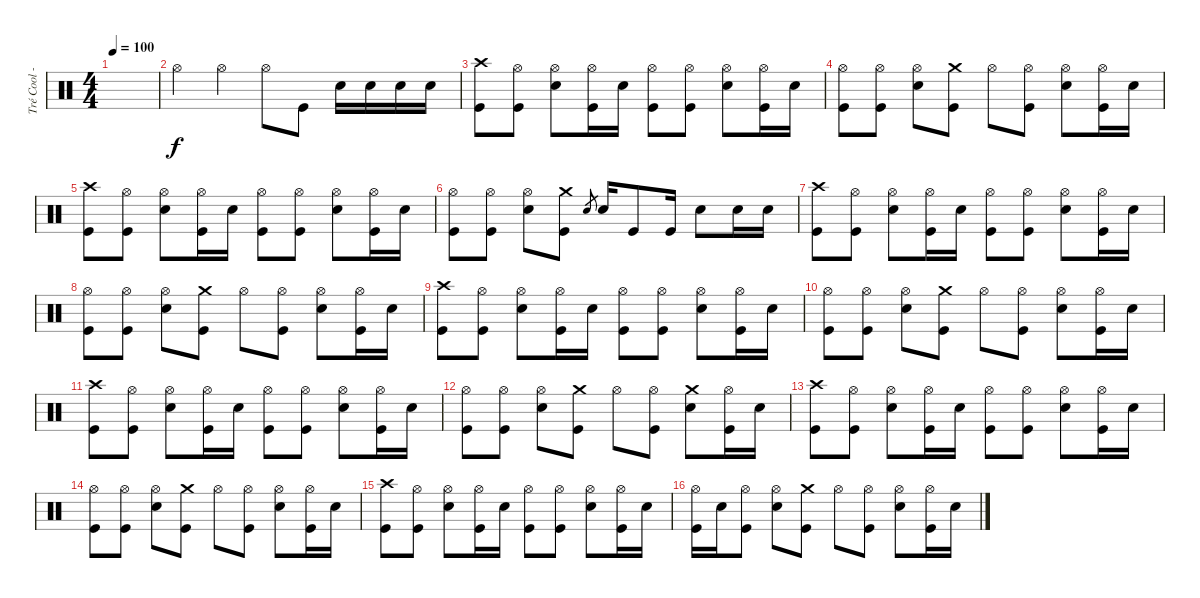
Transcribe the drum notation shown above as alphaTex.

\track ("Tré Cool - Drums" "Tré Cool -") {instrument percussion}
\staff {score}
\articulation defaults
\ts (4 4)
\tempo 100
\clef neutral
\ks c
|
"Hi-Hat (open)".4 "Hi-Hat (open)".4 "Hi-Hat (open)".8 "Kick (hit)".8 "Electric Snare (hit)".16 "Electric Snare (hit)".16 "Electric Snare (hit)".16 "Electric Snare (hit)".16 |
("Crash high (hit)" "Kick (hit)").8 ("Hi-Hat (open)" "Kick (hit)").8 ("Hi-Hat (open)" "Electric Snare (hit)").8 ("Hi-Hat (open)" "Kick (hit)").16 "Electric Snare (hit)".16 ("Hi-Hat (open)" "Kick (hit)").8 ("Hi-Hat (open)" "Kick (hit)").8 ("Hi-Hat (open)" "Electric Snare (hit)").8 ("Hi-Hat (open)" "Kick (hit)").16 "Electric Snare (hit)".16 |
("Hi-Hat (open)" "Kick (hit)").8 ("Hi-Hat (open)" "Kick (hit)").8 ("Hi-Hat (open)" "Electric Snare (hit)").8 ("Crash medium (hit)" "Kick (hit)").8 "Hi-Hat (open)".8 ("Hi-Hat (open)" "Kick (hit)").8 ("Hi-Hat (open)" "Electric Snare (hit)").8 ("Hi-Hat (open)" "Kick (hit)").16 "Electric Snare (hit)".16 |
("Crash high (hit)" "Kick (hit)").8 ("Hi-Hat (open)" "Kick (hit)").8 ("Hi-Hat (open)" "Electric Snare (hit)").8 ("Hi-Hat (open)" "Kick (hit)").16 "Electric Snare (hit)".16 ("Hi-Hat (open)" "Kick (hit)").8 ("Hi-Hat (open)" "Kick (hit)").8 ("Hi-Hat (open)" "Electric Snare (hit)").8 ("Hi-Hat (open)" "Kick (hit)").16 "Electric Snare (hit)".16 |
("Hi-Hat (open)" "Kick (hit)").8 ("Hi-Hat (open)" "Kick (hit)").8 ("Hi-Hat (open)" "Electric Snare (hit)").8 ("Crash medium (hit)" "Kick (hit)").8 "Electric Snare (hit)".8{gr} "Electric Snare (hit)".16 "Kick (hit)".8 "Kick (hit)".16 "Electric Snare (hit)".8 "Electric Snare (hit)".16 "Electric Snare (hit)".16 |
("Crash high (hit)" "Kick (hit)").8 ("Hi-Hat (open)" "Kick (hit)").8 ("Hi-Hat (open)" "Electric Snare (hit)").8 ("Hi-Hat (open)" "Kick (hit)").16 "Electric Snare (hit)".16 ("Hi-Hat (open)" "Kick (hit)").8 ("Hi-Hat (open)" "Kick (hit)").8 ("Hi-Hat (open)" "Electric Snare (hit)").8 ("Hi-Hat (open)" "Kick (hit)").16 "Electric Snare (hit)".16 |
("Hi-Hat (open)" "Kick (hit)").8 ("Hi-Hat (open)" "Kick (hit)").8 ("Hi-Hat (open)" "Electric Snare (hit)").8 ("Crash medium (hit)" "Kick (hit)").8 "Hi-Hat (open)".8 ("Hi-Hat (open)" "Kick (hit)").8 ("Hi-Hat (open)" "Electric Snare (hit)").8 ("Hi-Hat (open)" "Kick (hit)").16 "Electric Snare (hit)".16 |
("Crash high (hit)" "Kick (hit)").8 ("Hi-Hat (open)" "Kick (hit)").8 ("Hi-Hat (open)" "Electric Snare (hit)").8 ("Hi-Hat (open)" "Kick (hit)").16 "Electric Snare (hit)".16 ("Hi-Hat (open)" "Kick (hit)").8 ("Hi-Hat (open)" "Kick (hit)").8 ("Hi-Hat (open)" "Electric Snare (hit)").8 ("Hi-Hat (open)" "Kick (hit)").16 "Electric Snare (hit)".16 |
("Hi-Hat (open)" "Kick (hit)").8 ("Hi-Hat (open)" "Kick (hit)").8 ("Hi-Hat (open)" "Electric Snare (hit)").8 ("Crash medium (hit)" "Kick (hit)").8 "Hi-Hat (open)".8 ("Hi-Hat (open)" "Kick (hit)").8 ("Hi-Hat (open)" "Electric Snare (hit)").8 ("Hi-Hat (open)" "Kick (hit)").16 "Electric Snare (hit)".16 |
("Crash high (hit)" "Kick (hit)").8 ("Hi-Hat (open)" "Kick (hit)").8 ("Hi-Hat (open)" "Electric Snare (hit)").8 ("Hi-Hat (open)" "Kick (hit)").16 "Electric Snare (hit)".16 ("Hi-Hat (open)" "Kick (hit)").8 ("Hi-Hat (open)" "Kick (hit)").8 ("Hi-Hat (open)" "Electric Snare (hit)").8 ("Hi-Hat (open)" "Kick (hit)").16 "Electric Snare (hit)".16 |
("Hi-Hat (open)" "Kick (hit)").8 ("Hi-Hat (open)" "Kick (hit)").8 ("Hi-Hat (open)" "Electric Snare (hit)").8 ("Crash medium (hit)" "Kick (hit)").8 "Hi-Hat (open)".8 ("Hi-Hat (open)" "Kick (hit)").8 ("Crash medium (hit)" "Electric Snare (hit)").8 ("Hi-Hat (open)" "Kick (hit)").16 "Electric Snare (hit)".16 |
("Crash high (hit)" "Kick (hit)").8 ("Hi-Hat (open)" "Kick (hit)").8 ("Hi-Hat (open)" "Electric Snare (hit)").8 ("Hi-Hat (open)" "Kick (hit)").16 "Electric Snare (hit)".16 ("Hi-Hat (open)" "Kick (hit)").8 ("Hi-Hat (open)" "Kick (hit)").8 ("Hi-Hat (open)" "Electric Snare (hit)").8 ("Hi-Hat (open)" "Kick (hit)").16 "Electric Snare (hit)".16 |
("Hi-Hat (open)" "Kick (hit)").8 ("Hi-Hat (open)" "Kick (hit)").8 ("Hi-Hat (open)" "Electric Snare (hit)").8 ("Crash medium (hit)" "Kick (hit)").8 "Hi-Hat (open)".8 ("Hi-Hat (open)" "Kick (hit)").8 ("Hi-Hat (open)" "Electric Snare (hit)").8 ("Hi-Hat (open)" "Kick (hit)").16 "Electric Snare (hit)".16 |
("Crash high (hit)" "Kick (hit)").8 ("Hi-Hat (open)" "Kick (hit)").8 ("Hi-Hat (open)" "Electric Snare (hit)").8 ("Hi-Hat (open)" "Kick (hit)").16 "Electric Snare (hit)".16 ("Hi-Hat (open)" "Kick (hit)").8 ("Hi-Hat (open)" "Kick (hit)").8 ("Hi-Hat (open)" "Electric Snare (hit)").8 ("Hi-Hat (open)" "Kick (hit)").16 "Electric Snare (hit)".16 |
("Hi-Hat (open)" "Kick (hit)").16 "Electric Snare (hit)".16 ("Hi-Hat (open)" "Kick (hit)").8 ("Hi-Hat (open)" "Electric Snare (hit)").8 ("Crash medium (hit)" "Kick (hit)").8 "Hi-Hat (open)".8 ("Hi-Hat (open)" "Kick (hit)").8 ("Hi-Hat (open)" "Electric Snare (hit)").8 ("Hi-Hat (open)" "Kick (hit)").16 "Electric Snare (hit)".16
